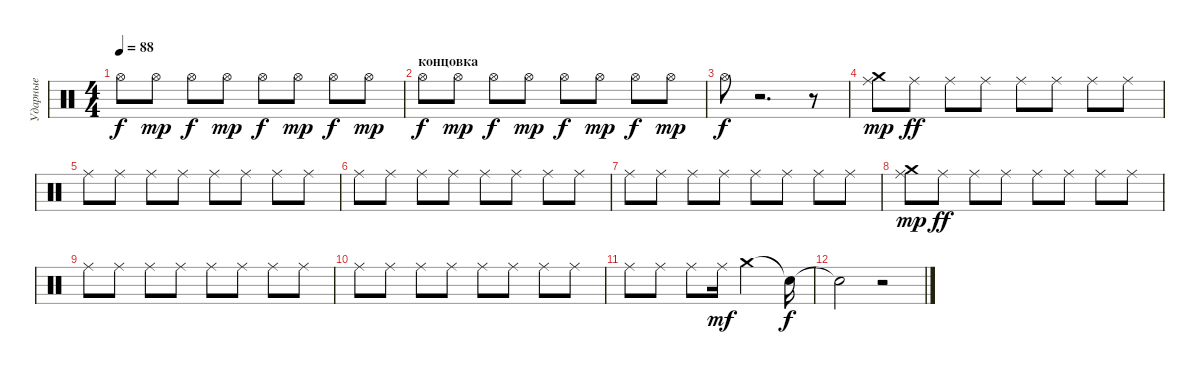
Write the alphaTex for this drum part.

\track ("Ударные" "Ударные") {instrument percussion}
\staff {score}
\articulation defaults
\ts (4 4)
\tempo 88
\clef neutral
\ks c "Hi-Hat (open)".8{dy f} "Hi-Hat (open)".8{dy mp} "Hi-Hat (open)".8{dy f} "Hi-Hat (open)".8{dy mp} "Hi-Hat (open)".8{dy f} "Hi-Hat (open)".8{dy mp} "Hi-Hat (open)".8{dy f} "Hi-Hat (open)".8{dy mp}
|
\section ("" "концовка")
"Hi-Hat (open)".8{dy f} "Hi-Hat (open)".8{dy mp} "Hi-Hat (open)".8{dy f} "Hi-Hat (open)".8{dy mp} "Hi-Hat (open)".8{dy f} "Hi-Hat (open)".8{dy mp} "Hi-Hat (open)".8{dy f} "Hi-Hat (open)".8{dy mp} |
"Hi-Hat (open)".8{dy f} r.2{d} r.8 |
("Ride (middle)" "Crash medium (hit)").8{dy mp} "Ride (middle)".8{dy ff} "Ride (middle)".8 "Ride (middle)".8 "Ride (middle)".8 "Ride (middle)".8 "Ride (middle)".8 "Ride (middle)".8 |
"Ride (middle)".8 "Ride (middle)".8 "Ride (middle)".8 "Ride (middle)".8 "Ride (middle)".8 "Ride (middle)".8 "Ride (middle)".8 "Ride (middle)".8 |
"Ride (middle)".8 "Ride (middle)".8 "Ride (middle)".8 "Ride (middle)".8 "Ride (middle)".8 "Ride (middle)".8 "Ride (middle)".8 "Ride (middle)".8 |
"Ride (middle)".8 "Ride (middle)".8 "Ride (middle)".8 "Ride (middle)".8 "Ride (middle)".8 "Ride (middle)".8 "Ride (middle)".8 "Ride (middle)".8 |
("Ride (middle)" "Crash medium (hit)").8{dy mp} "Ride (middle)".8{dy ff} "Ride (middle)".8 "Ride (middle)".8 "Ride (middle)".8 "Ride (middle)".8 "Ride (middle)".8 "Ride (middle)".8 |
"Ride (middle)".8 "Ride (middle)".8 "Ride (middle)".8 "Ride (middle)".8 "Ride (middle)".8 "Ride (middle)".8 "Ride (middle)".8 "Ride (middle)".8 |
"Ride (middle)".8 "Ride (middle)".8 "Ride (middle)".8 "Ride (middle)".8 "Ride (middle)".8 "Ride (middle)".8 "Ride (middle)".8 "Ride (middle)".8 |
"Ride (middle)".8 "Ride (middle)".8 "Ride (middle)".8 "Ride (middle)".16{dy mf} "Crash medium (hit)".2 "Snare (hit)"{t}.16{dy f} |
"Snare (hit)"{t}.2 r.2
